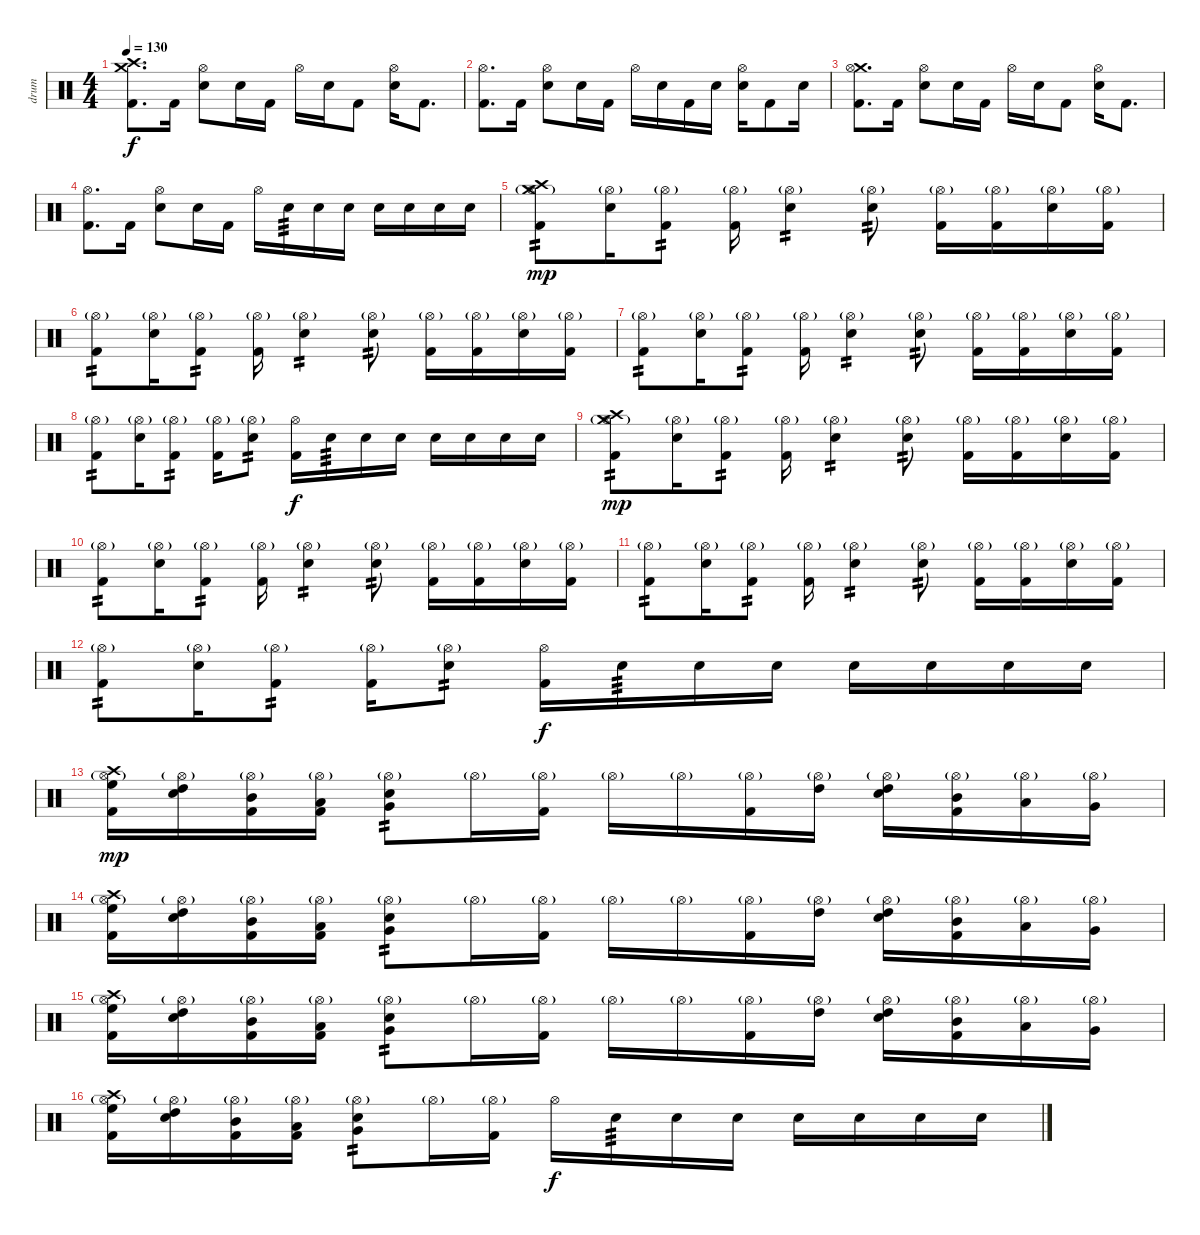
\track ("drum" "drum") {instrument percussion}
\staff {score}
\articulation defaults
\ts (4 4)
\tempo 130
\clef neutral
\ks c
("Crash medium (hit)" "Crash high (hit)" "Kick (hit) 2").8{d dy f} "Kick (hit) 2".16 ("Hi-Hat (open)" "Electric Snare (hit)").8 "Electric Snare (hit)".16 "Kick (hit) 2".16 "Hi-Hat (open)".16 "Electric Snare (hit)".16 "Kick (hit) 2".8 ("Hi-Hat (open)" "Electric Snare (hit)").16 "Kick (hit) 2".8{d} |
("Hi-Hat (open)" "Kick (hit) 2").8{d} "Kick (hit) 2".16 ("Hi-Hat (open)" "Electric Snare (hit)").8 "Electric Snare (hit)".16 "Kick (hit) 2".16 "Hi-Hat (open)".16 "Electric Snare (hit)".16 "Kick (hit) 2".16 "Electric Snare (hit)".16 ("Hi-Hat (open)" "Electric Snare (hit)").16 "Kick (hit) 2".8 "Electric Snare (hit)".16 |
("Crash medium (hit)" "Hi-Hat (open)" "Kick (hit) 2").8{d} "Kick (hit) 2".16 ("Hi-Hat (open)" "Electric Snare (hit)").8 "Electric Snare (hit)".16 "Kick (hit) 2".16 "Hi-Hat (open)".16 "Electric Snare (hit)".16 "Kick (hit) 2".8 ("Hi-Hat (open)" "Electric Snare (hit)").16 "Kick (hit) 2".8{d} |
("Hi-Hat (open)" "Kick (hit) 2").8{d} "Kick (hit) 2".16 ("Hi-Hat (open)" "Electric Snare (hit)").8 "Electric Snare (hit)".16 "Kick (hit) 2".16 "Hi-Hat (open)".16 "Electric Snare (hit)".16{tp 3} "Electric Snare (hit)".16 "Electric Snare (hit)".16 "Electric Snare (hit)".16 "Electric Snare (hit)".16 "Electric Snare (hit)".16 "Electric Snare (hit)".16 |
("Crash high (hit)" "Hi-Hat (open)"{g} "Crash medium (hit)" "Kick (hit) 2").8{tp 2 dy mp} ("Hi-Hat (open)"{g} "Electric Snare (hit)").16 ("Hi-Hat (open)"{g} "Kick (hit) 2").8{tp 2} ("Hi-Hat (open)"{g} "Kick (hit) 2").16 ("Hi-Hat (open)"{g} "Electric Snare (hit)").4{tp 2} ("Hi-Hat (open)"{g} "Electric Snare (hit)").8{tp 2} ("Hi-Hat (open)"{g} "Kick (hit) 2").16 ("Hi-Hat (open)"{g} "Kick (hit) 2").16 ("Hi-Hat (open)"{g} "Electric Snare (hit)").16 ("Hi-Hat (open)"{g} "Kick (hit) 2").16 |
("Hi-Hat (open)"{g} "Kick (hit) 2").8{tp 2} ("Hi-Hat (open)"{g} "Electric Snare (hit)").16 ("Hi-Hat (open)"{g} "Kick (hit) 2").8{tp 2} ("Hi-Hat (open)"{g} "Kick (hit) 2").16 ("Hi-Hat (open)"{g} "Electric Snare (hit)").4{tp 2} ("Hi-Hat (open)"{g} "Electric Snare (hit)").8{tp 2} ("Hi-Hat (open)"{g} "Kick (hit) 2").16 ("Hi-Hat (open)"{g} "Kick (hit) 2").16 ("Hi-Hat (open)"{g} "Electric Snare (hit)").16 ("Hi-Hat (open)"{g} "Kick (hit) 2").16 |
("Hi-Hat (open)"{g} "Kick (hit) 2").8{tp 2} ("Hi-Hat (open)"{g} "Electric Snare (hit)").16 ("Hi-Hat (open)"{g} "Kick (hit) 2").8{tp 2} ("Hi-Hat (open)"{g} "Kick (hit) 2").16 ("Hi-Hat (open)"{g} "Electric Snare (hit)").4{tp 2} ("Hi-Hat (open)"{g} "Electric Snare (hit)").8{tp 2} ("Hi-Hat (open)"{g} "Kick (hit) 2").16 ("Hi-Hat (open)"{g} "Kick (hit) 2").16 ("Hi-Hat (open)"{g} "Electric Snare (hit)").16 ("Hi-Hat (open)"{g} "Kick (hit) 2").16 |
("Hi-Hat (open)"{g} "Kick (hit) 2").8{tp 2} ("Hi-Hat (open)"{g} "Electric Snare (hit)").16 ("Hi-Hat (open)"{g} "Kick (hit) 2").8{tp 2} ("Hi-Hat (open)"{g} "Kick (hit) 2").16 ("Hi-Hat (open)"{g} "Electric Snare (hit)").8{tp 2} ("Hi-Hat (open)" "Kick (hit) 2").16{dy f} "Electric Snare (hit)".16{tp 3} "Electric Snare (hit)".16 "Electric Snare (hit)".16 "Electric Snare (hit)".16 "Electric Snare (hit)".16 "Electric Snare (hit)".16 "Electric Snare (hit)".16 |
("Crash high (hit)" "Hi-Hat (open)"{g} "Crash medium (hit)" "Kick (hit) 2").8{tp 2 dy mp} ("Hi-Hat (open)"{g} "Electric Snare (hit)").16 ("Hi-Hat (open)"{g} "Kick (hit) 2").8{tp 2} ("Hi-Hat (open)"{g} "Kick (hit) 2").16 ("Hi-Hat (open)"{g} "Electric Snare (hit)").4{tp 2} ("Hi-Hat (open)"{g} "Electric Snare (hit)").8{tp 2} ("Hi-Hat (open)"{g} "Kick (hit) 2").16 ("Hi-Hat (open)"{g} "Kick (hit) 2").16 ("Hi-Hat (open)"{g} "Electric Snare (hit)").16 ("Hi-Hat (open)"{g} "Kick (hit) 2").16 |
("Hi-Hat (open)"{g} "Kick (hit) 2").8{tp 2} ("Hi-Hat (open)"{g} "Electric Snare (hit)").16 ("Hi-Hat (open)"{g} "Kick (hit) 2").8{tp 2} ("Hi-Hat (open)"{g} "Kick (hit) 2").16 ("Hi-Hat (open)"{g} "Electric Snare (hit)").4{tp 2} ("Hi-Hat (open)"{g} "Electric Snare (hit)").8{tp 2} ("Hi-Hat (open)"{g} "Kick (hit) 2").16 ("Hi-Hat (open)"{g} "Kick (hit) 2").16 ("Hi-Hat (open)"{g} "Electric Snare (hit)").16 ("Hi-Hat (open)"{g} "Kick (hit) 2").16 |
("Hi-Hat (open)"{g} "Kick (hit) 2").8{tp 2} ("Hi-Hat (open)"{g} "Electric Snare (hit)").16 ("Hi-Hat (open)"{g} "Kick (hit) 2").8{tp 2} ("Hi-Hat (open)"{g} "Kick (hit) 2").16 ("Hi-Hat (open)"{g} "Electric Snare (hit)").4{tp 2} ("Hi-Hat (open)"{g} "Electric Snare (hit)").8{tp 2} ("Hi-Hat (open)"{g} "Kick (hit) 2").16 ("Hi-Hat (open)"{g} "Kick (hit) 2").16 ("Hi-Hat (open)"{g} "Electric Snare (hit)").16 ("Hi-Hat (open)"{g} "Kick (hit) 2").16 |
("Hi-Hat (open)"{g} "Kick (hit) 2").8{tp 2} ("Hi-Hat (open)"{g} "Electric Snare (hit)").16 ("Hi-Hat (open)"{g} "Kick (hit) 2").8{tp 2} ("Hi-Hat (open)"{g} "Kick (hit) 2").16 ("Hi-Hat (open)"{g} "Electric Snare (hit)").8{tp 2} ("Hi-Hat (open)" "Kick (hit) 2").16{dy f} "Electric Snare (hit)".16{tp 3} "Electric Snare (hit)".16 "Electric Snare (hit)".16 "Electric Snare (hit)".16 "Electric Snare (hit)".16 "Electric Snare (hit)".16 "Electric Snare (hit)".16 |
("Crash high (hit)" "Hi-Hat (open)"{g} "High Floor Tom (hit)" "Kick (hit) 2").16{dy mp} ("Hi-Hat (open)"{g} "High Tom (hit)" "Electric Snare (hit)").16 ("Hi-Hat (open)"{g} "Mid Tom (hit)" "Kick (hit) 2").16 ("Hi-Hat (open)"{g} "Low Tom (hit)" "Kick (hit) 2").16 ("Hi-Hat (open)"{g} "Very Low Tom (hit)" "Electric Snare (hit)").8{tp 2} "Hi-Hat (open)"{g}.16 ("Hi-Hat (open)"{g} "Kick (hit) 2").16 "Hi-Hat (open)"{g}.16 "Hi-Hat (open)"{g}.16 ("Hi-Hat (open)"{g} "Kick (hit) 2").16 ("Hi-Hat (open)"{g} "High Tom (hit)").16 ("Hi-Hat (open)"{g} "High Tom (hit)" "Electric Snare (hit)").16 ("Hi-Hat (open)"{g} "Mid Tom (hit)" "Kick (hit) 2").16 ("Hi-Hat (open)"{g} "Low Tom (hit)").16 ("Hi-Hat (open)"{g} "Very Low Tom (hit)").16 |
("Crash high (hit)" "Hi-Hat (open)"{g} "High Floor Tom (hit)" "Kick (hit) 2").16 ("Hi-Hat (open)"{g} "High Tom (hit)" "Electric Snare (hit)").16 ("Hi-Hat (open)"{g} "Mid Tom (hit)" "Kick (hit) 2").16 ("Hi-Hat (open)"{g} "Low Tom (hit)" "Kick (hit) 2").16 ("Hi-Hat (open)"{g} "Very Low Tom (hit)" "Electric Snare (hit)").8{tp 2} "Hi-Hat (open)"{g}.16 ("Hi-Hat (open)"{g} "Kick (hit) 2").16 "Hi-Hat (open)"{g}.16 "Hi-Hat (open)"{g}.16 ("Hi-Hat (open)"{g} "Kick (hit) 2").16 ("Hi-Hat (open)"{g} "High Tom (hit)").16 ("Hi-Hat (open)"{g} "High Tom (hit)" "Electric Snare (hit)").16 ("Hi-Hat (open)"{g} "Mid Tom (hit)" "Kick (hit) 2").16 ("Hi-Hat (open)"{g} "Low Tom (hit)").16 ("Hi-Hat (open)"{g} "Very Low Tom (hit)").16 |
("Crash high (hit)" "Hi-Hat (open)"{g} "High Floor Tom (hit)" "Kick (hit) 2").16 ("Hi-Hat (open)"{g} "High Tom (hit)" "Electric Snare (hit)").16 ("Hi-Hat (open)"{g} "Mid Tom (hit)" "Kick (hit) 2").16 ("Hi-Hat (open)"{g} "Low Tom (hit)" "Kick (hit) 2").16 ("Hi-Hat (open)"{g} "Very Low Tom (hit)" "Electric Snare (hit)").8{tp 2} "Hi-Hat (open)"{g}.16 ("Hi-Hat (open)"{g} "Kick (hit) 2").16 "Hi-Hat (open)"{g}.16 "Hi-Hat (open)"{g}.16 ("Hi-Hat (open)"{g} "Kick (hit) 2").16 ("Hi-Hat (open)"{g} "High Tom (hit)").16 ("Hi-Hat (open)"{g} "High Tom (hit)" "Electric Snare (hit)").16 ("Hi-Hat (open)"{g} "Mid Tom (hit)" "Kick (hit) 2").16 ("Hi-Hat (open)"{g} "Low Tom (hit)").16 ("Hi-Hat (open)"{g} "Very Low Tom (hit)").16 |
("Crash high (hit)" "Hi-Hat (open)"{g} "High Floor Tom (hit)" "Kick (hit) 2").16 ("Hi-Hat (open)"{g} "High Tom (hit)" "Electric Snare (hit)").16 ("Hi-Hat (open)"{g} "Mid Tom (hit)" "Kick (hit) 2").16 ("Hi-Hat (open)"{g} "Low Tom (hit)" "Kick (hit) 2").16 ("Hi-Hat (open)"{g} "Very Low Tom (hit)" "Electric Snare (hit)").8{tp 2} "Hi-Hat (open)"{g}.16 ("Hi-Hat (open)"{g} "Kick (hit) 2").16 "Hi-Hat (open)".16{dy f} "Electric Snare (hit)".16{tp 3} "Electric Snare (hit)".16 "Electric Snare (hit)".16 "Electric Snare (hit)".16 "Electric Snare (hit)".16 "Electric Snare (hit)".16 "Electric Snare (hit)".16
